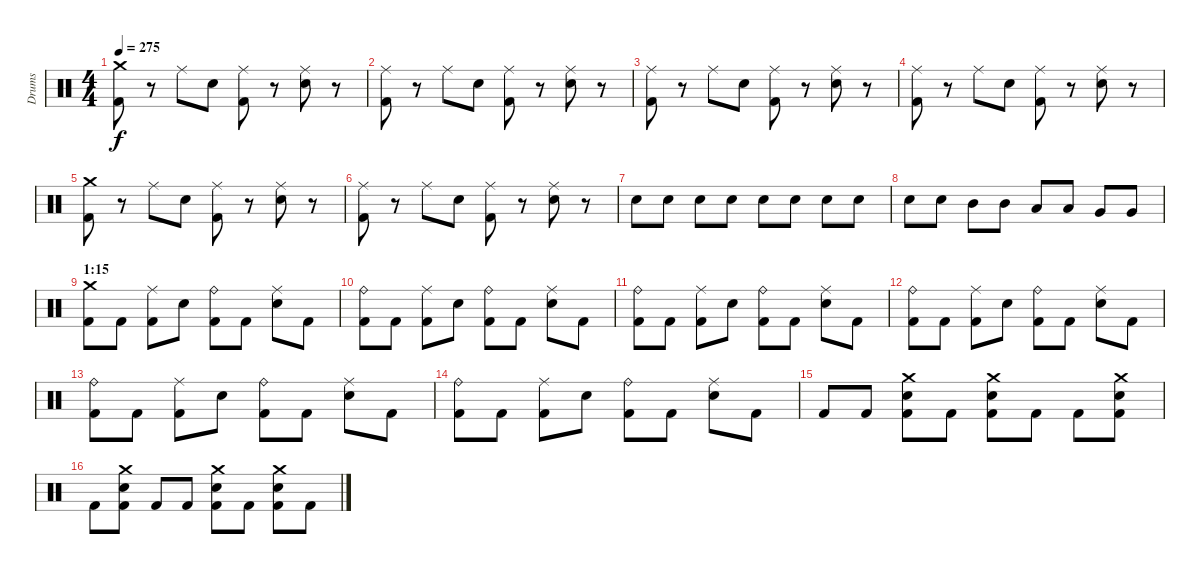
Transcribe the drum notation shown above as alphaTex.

\track ("Drums" "Drums") {instrument percussion}
\staff {score}
\articulation defaults
\ts (4 4)
\tempo 275
\clef neutral
\ks c
("Crash medium (hit)" "Kick (hit) 2").8{dy f} r.8 "Ride (middle)".8 "Electric Snare (hit)".8 ("Ride (middle)" "Kick (hit) 2").8 r.8 ("Ride (middle)" "Electric Snare (hit)").8 r.8 |
("Ride (middle)" "Kick (hit) 2").8 r.8 "Ride (middle)".8 "Electric Snare (hit)".8 ("Ride (middle)" "Kick (hit) 2").8 r.8 ("Ride (middle)" "Electric Snare (hit)").8 r.8 |
("Ride (middle)" "Kick (hit) 2").8 r.8 "Ride (middle)".8 "Electric Snare (hit)".8 ("Ride (middle)" "Kick (hit) 2").8 r.8 ("Ride (middle)" "Electric Snare (hit)").8 r.8 |
("Ride (middle)" "Kick (hit) 2").8 r.8 "Ride (middle)".8 "Electric Snare (hit)".8 ("Ride (middle)" "Kick (hit) 2").8 r.8 ("Ride (middle)" "Electric Snare (hit)").8 r.8 |
("Crash medium (hit)" "Kick (hit) 2").8 r.8 "Ride (middle)".8 "Electric Snare (hit)".8 ("Ride (middle)" "Kick (hit) 2").8 r.8 ("Ride (middle)" "Electric Snare (hit)").8 r.8 |
("Ride (middle)" "Kick (hit) 2").8 r.8 "Ride (middle)".8 "Electric Snare (hit)".8 ("Ride (middle)" "Kick (hit) 2").8 r.8 ("Ride (middle)" "Electric Snare (hit)").8 r.8 |
"Electric Snare (hit)".8 "Electric Snare (hit)".8 "Electric Snare (hit)".8 "Electric Snare (hit)".8 "Electric Snare (hit)".8 "Electric Snare (hit)".8 "Electric Snare (hit)".8 "Electric Snare (hit)".8 |
"Electric Snare (hit)".8 "Electric Snare (hit)".8 "Mid Tom (hit)".8 "Mid Tom (hit)".8 "Low Tom (hit)".8 "Low Tom (hit)".8 "Very Low Tom (hit)".8 "Very Low Tom (hit)".8 |
\section ("" "1:15")
("Crash medium (hit)" "Kick (hit) 2").8 "Kick (hit) 2".8 ("Ride (middle)" "Kick (hit) 2").8 "Electric Snare (hit)".8 ("Ride (bell)" "Kick (hit) 2").8 "Kick (hit) 2".8 ("Ride (middle)" "Electric Snare (hit)").8 "Kick (hit) 2".8 |
("Ride (bell)" "Kick (hit) 2").8 "Kick (hit) 2".8 ("Ride (middle)" "Kick (hit) 2").8 "Electric Snare (hit)".8 ("Ride (bell)" "Kick (hit) 2").8 "Kick (hit) 2".8 ("Ride (middle)" "Electric Snare (hit)").8 "Kick (hit) 2".8 |
("Ride (bell)" "Kick (hit) 2").8 "Kick (hit) 2".8 ("Ride (middle)" "Kick (hit) 2").8 "Electric Snare (hit)".8 ("Ride (bell)" "Kick (hit) 2").8 "Kick (hit) 2".8 ("Ride (middle)" "Electric Snare (hit)").8 "Kick (hit) 2".8 |
("Ride (bell)" "Kick (hit) 2").8 "Kick (hit) 2".8 ("Ride (middle)" "Kick (hit) 2").8 "Electric Snare (hit)".8 ("Ride (bell)" "Kick (hit) 2").8 "Kick (hit) 2".8 ("Ride (middle)" "Electric Snare (hit)").8 "Kick (hit) 2".8 |
("Ride (bell)" "Kick (hit) 2").8 "Kick (hit) 2".8 ("Ride (middle)" "Kick (hit) 2").8 "Electric Snare (hit)".8 ("Ride (bell)" "Kick (hit) 2").8 "Kick (hit) 2".8 ("Ride (middle)" "Electric Snare (hit)").8 "Kick (hit) 2".8 |
("Ride (bell)" "Kick (hit) 2").8 "Kick (hit) 2".8 ("Ride (middle)" "Kick (hit) 2").8 "Electric Snare (hit)".8 ("Ride (bell)" "Kick (hit) 2").8 "Kick (hit) 2".8 ("Ride (middle)" "Electric Snare (hit)").8 "Kick (hit) 2".8 |
"Kick (hit) 2".8 "Kick (hit) 2".8 ("Crash medium (hit)" "Electric Snare (hit)" "Kick (hit) 2").8 "Kick (hit) 2".8 ("Crash medium (hit)" "Electric Snare (hit)" "Kick (hit) 2").8 "Kick (hit) 2".8 "Kick (hit) 2".8 ("Crash medium (hit)" "Electric Snare (hit)" "Kick (hit) 2").8 |
"Kick (hit) 2".8 ("Crash medium (hit)" "Electric Snare (hit)" "Kick (hit) 2").8 "Kick (hit) 2".8 "Kick (hit) 2".8 ("Crash medium (hit)" "Electric Snare (hit)" "Kick (hit) 2").8 "Kick (hit) 2".8 ("Crash medium (hit)" "Electric Snare (hit)" "Kick (hit) 2").8 "Kick (hit) 2".8
